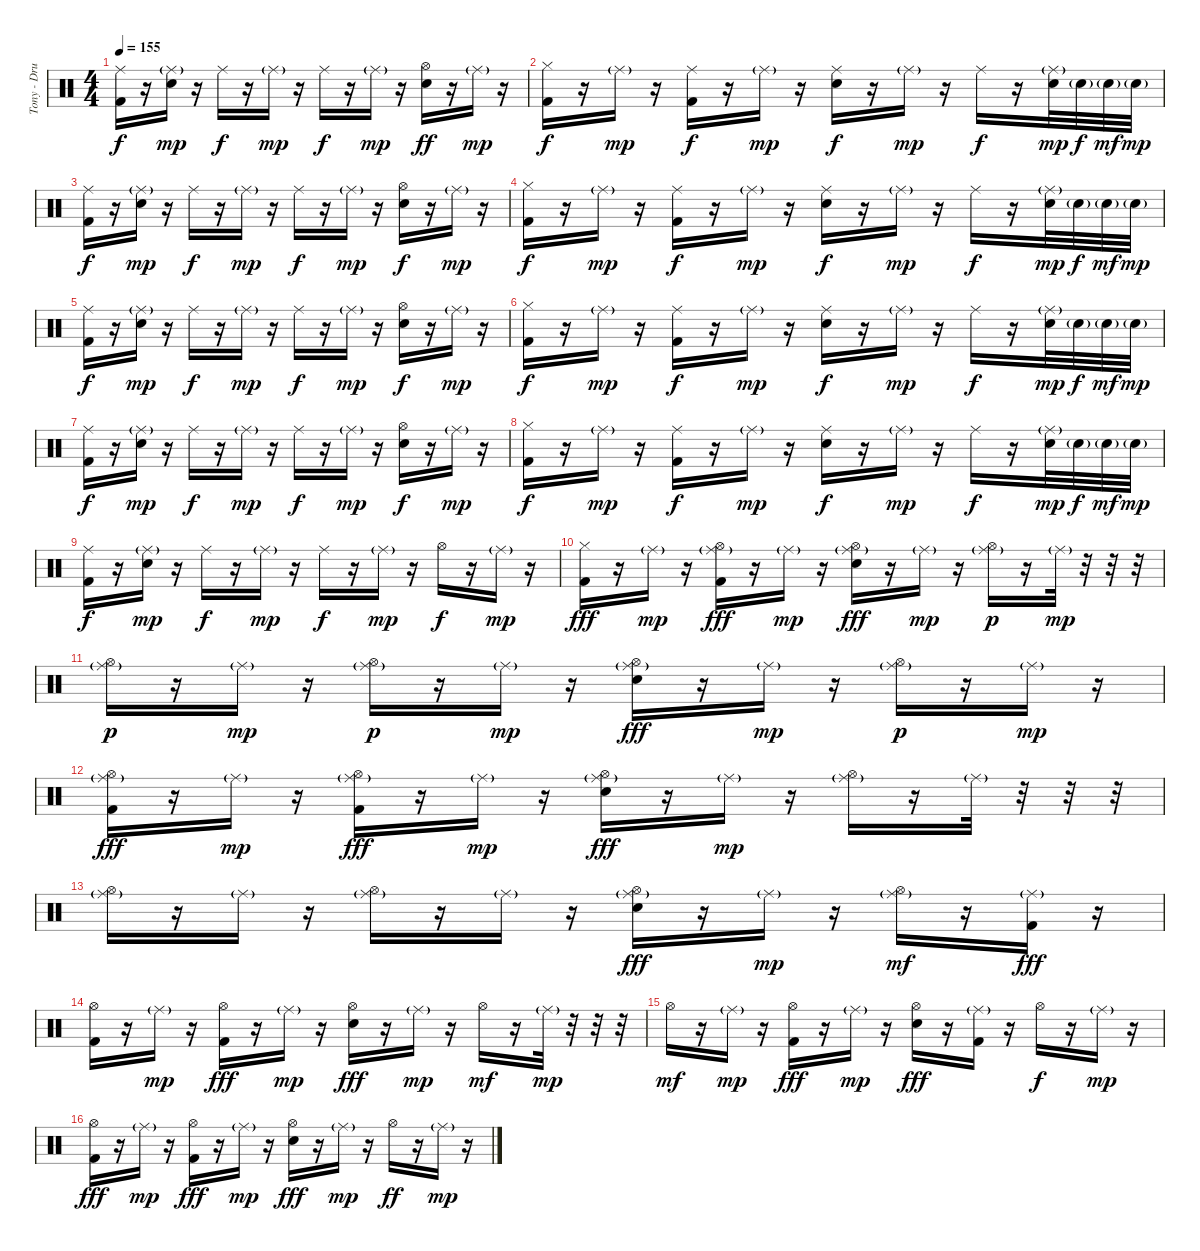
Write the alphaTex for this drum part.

\track ("Tony - Drums" "Tony - Dru") {instrument percussion}
\staff {score}
\articulation defaults
\ts (4 4)
\tempo 155
\clef neutral
\ks c
("Ride (middle)" "Kick (hit) 2").16{dy f} r.16 ("Ride (middle)"{g} "Electric Snare (hit)").16{dy mp} r.16 "Ride (middle)".16{dy f} r.16 "Ride (middle)"{g}.16{dy mp} r.16 "Ride (middle)".16{dy f} r.16 "Ride (middle)"{g}.16{dy mp} r.16 ("Hi-Hat (open)" "Electric Snare (hit)").16{dy ff} r.16 "Ride (middle)"{g}.16{dy mp} r.16 |
("Hi-Hat (closed)" "Kick (hit) 2").16{dy f} r.16 "Ride (middle)"{g}.16{dy mp} r.16 ("Ride (middle)" "Kick (hit) 2").16{dy f} r.16 "Ride (middle)"{g}.16{dy mp} r.16 ("Ride (middle)" "Electric Snare (hit)").16{dy f} r.16 "Ride (middle)"{g}.16{dy mp} r.16 "Ride (middle)".16{dy f} r.16 ("Ride (middle)"{g} "Electric Snare (hit)").32{dy mp} "Electric Snare (hit)"{g}.32{dy f} "Electric Snare (hit)"{g}.32{dy mf} "Electric Snare (hit)"{g}.32{dy mp} |
("Ride (middle)" "Kick (hit) 2").16{dy f} r.16 ("Ride (middle)"{g} "Electric Snare (hit)").16{dy mp} r.16 "Ride (middle)".16{dy f} r.16 "Ride (middle)"{g}.16{dy mp} r.16 "Ride (middle)".16{dy f} r.16 "Ride (middle)"{g}.16{dy mp} r.16 ("Hi-Hat (open)" "Electric Snare (hit)").16{dy f} r.16 "Ride (middle)"{g}.16{dy mp} r.16 |
("Hi-Hat (closed)" "Kick (hit) 2").16{dy f} r.16 "Ride (middle)"{g}.16{dy mp} r.16 ("Ride (middle)" "Kick (hit) 2").16{dy f} r.16 "Ride (middle)"{g}.16{dy mp} r.16 ("Ride (middle)" "Electric Snare (hit)").16{dy f} r.16 "Ride (middle)"{g}.16{dy mp} r.16 "Ride (middle)".16{dy f} r.16 ("Ride (middle)"{g} "Electric Snare (hit)").32{dy mp} "Electric Snare (hit)"{g}.32{dy f} "Electric Snare (hit)"{g}.32{dy mf} "Electric Snare (hit)"{g}.32{dy mp} |
("Ride (middle)" "Kick (hit) 2").16{dy f} r.16 ("Ride (middle)"{g} "Electric Snare (hit)").16{dy mp} r.16 "Ride (middle)".16{dy f} r.16 "Ride (middle)"{g}.16{dy mp} r.16 "Ride (middle)".16{dy f} r.16 "Ride (middle)"{g}.16{dy mp} r.16 ("Hi-Hat (open)" "Electric Snare (hit)").16{dy f} r.16 "Ride (middle)"{g}.16{dy mp} r.16 |
("Hi-Hat (closed)" "Kick (hit) 2").16{dy f} r.16 "Ride (middle)"{g}.16{dy mp} r.16 ("Ride (middle)" "Kick (hit) 2").16{dy f} r.16 "Ride (middle)"{g}.16{dy mp} r.16 ("Ride (middle)" "Electric Snare (hit)").16{dy f} r.16 "Ride (middle)"{g}.16{dy mp} r.16 "Ride (middle)".16{dy f} r.16 ("Ride (middle)"{g} "Electric Snare (hit)").32{dy mp} "Electric Snare (hit)"{g}.32{dy f} "Electric Snare (hit)"{g}.32{dy mf} "Electric Snare (hit)"{g}.32{dy mp} |
("Ride (middle)" "Kick (hit) 2").16{dy f} r.16 ("Ride (middle)"{g} "Electric Snare (hit)").16{dy mp} r.16 "Ride (middle)".16{dy f} r.16 "Ride (middle)"{g}.16{dy mp} r.16 "Ride (middle)".16{dy f} r.16 "Ride (middle)"{g}.16{dy mp} r.16 ("Hi-Hat (open)" "Electric Snare (hit)").16{dy f} r.16 "Ride (middle)"{g}.16{dy mp} r.16 |
("Hi-Hat (closed)" "Kick (hit) 2").16{dy f} r.16 "Ride (middle)"{g}.16{dy mp} r.16 ("Ride (middle)" "Kick (hit) 2").16{dy f} r.16 "Ride (middle)"{g}.16{dy mp} r.16 ("Ride (middle)" "Electric Snare (hit)").16{dy f} r.16 "Ride (middle)"{g}.16{dy mp} r.16 "Ride (middle)".16{dy f} r.16 ("Ride (middle)"{g} "Electric Snare (hit)").32{dy mp} "Electric Snare (hit)"{g}.32{dy f} "Electric Snare (hit)"{g}.32{dy mf} "Electric Snare (hit)"{g}.32{dy mp} |
("Ride (middle)" "Kick (hit) 2").16{dy f} r.16 ("Ride (middle)"{g} "Electric Snare (hit)").16{dy mp} r.16 "Ride (middle)".16{dy f} r.16 "Ride (middle)"{g}.16{dy mp} r.16 "Ride (middle)".16{dy f} r.16 "Ride (middle)"{g}.16{dy mp} r.16 "Hi-Hat (open)".16{dy f} r.16 "Ride (middle)"{g}.16{dy mp} r.16 |
("Hi-Hat (closed)" "Kick (hit) 2").16{dy fff} r.16 "Ride (middle)"{g}.16{dy mp} r.16 ("Hi-Hat (open)" "Ride (middle)"{g} "Kick (hit) 2").16{dy fff} r.16 "Ride (middle)"{g}.16{dy mp} r.16 ("Hi-Hat (open)" "Ride (middle)"{g} "Electric Snare (hit)").16{dy fff} r.16 "Ride (middle)"{g}.16{dy mp} r.16 ("Hi-Hat (open)" "Ride (middle)"{g}).16{dy p} r.16 "Ride (middle)"{g}.32{dy mp} r.32 r.32 r.32 |
("Hi-Hat (open)" "Ride (middle)"{g}).16{dy p} r.16 "Ride (middle)"{g}.16{dy mp} r.16 ("Hi-Hat (open)" "Ride (middle)"{g}).16{dy p} r.16 "Ride (middle)"{g}.16{dy mp} r.16 ("Hi-Hat (open)" "Ride (middle)"{g} "Electric Snare (hit)").16{dy fff} r.16 "Ride (middle)"{g}.16{dy mp} r.16 ("Hi-Hat (open)" "Ride (middle)"{g}).16{dy p} r.16 "Ride (middle)"{g}.16{dy mp} r.16 |
("Hi-Hat (open)" "Ride (middle)"{g} "Kick (hit) 2").16{dy fff} r.16 "Ride (middle)"{g}.16{dy mp} r.16 ("Hi-Hat (open)" "Ride (middle)"{g} "Kick (hit) 2").16{dy fff} r.16 "Ride (middle)"{g}.16{dy mp} r.16 ("Hi-Hat (open)" "Ride (middle)"{g} "Electric Snare (hit)").16{dy fff} r.16 "Ride (middle)"{g}.16{dy mp} r.16 ("Hi-Hat (open)" "Ride (middle)"{g}).16 r.16 "Ride (middle)"{g}.32 r.32 r.32 r.32 |
("Hi-Hat (open)" "Ride (middle)"{g}).16 r.16 "Ride (middle)"{g}.16 r.16 ("Hi-Hat (open)" "Ride (middle)"{g}).16 r.16 "Ride (middle)"{g}.16 r.16 ("Hi-Hat (open)" "Ride (middle)"{g} "Electric Snare (hit)").16{dy fff} r.16 "Ride (middle)"{g}.16{dy mp} r.16 ("Hi-Hat (open)" "Ride (middle)"{g}).16{dy mf} r.16 ("Ride (middle)"{g} "Kick (hit) 2").16{dy fff} r.16 |
("Hi-Hat (open)" "Kick (hit) 2").16 r.16 "Ride (middle)"{g}.16{dy mp} r.16 ("Hi-Hat (open)" "Kick (hit) 2").16{dy fff} r.16 "Ride (middle)"{g}.16{dy mp} r.16 ("Hi-Hat (open)" "Electric Snare (hit)").16{dy fff} r.16 "Ride (middle)"{g}.16{dy mp} r.16 "Hi-Hat (open)".16{dy mf} r.16 "Ride (middle)"{g}.32{dy mp} r.32 r.32 r.32 |
"Hi-Hat (open)".16{dy mf} r.16 "Ride (middle)"{g}.16{dy mp} r.16 ("Hi-Hat (open)" "Kick (hit) 2").16{dy fff} r.16 "Ride (middle)"{g}.16{dy mp} r.16 ("Hi-Hat (open)" "Electric Snare (hit)").16{dy fff} r.16 ("Ride (middle)"{g} "Kick (hit) 2").16 r.16 "Hi-Hat (open)".16{dy f} r.16 "Ride (middle)"{g}.16{dy mp} r.16 |
("Hi-Hat (open)" "Kick (hit) 2").16{dy fff} r.16 "Ride (middle)"{g}.16{dy mp} r.16 ("Hi-Hat (open)" "Kick (hit) 2").16{dy fff} r.16 "Ride (middle)"{g}.16{dy mp} r.16 ("Hi-Hat (open)" "Electric Snare (hit)").16{dy fff} r.16 "Ride (middle)"{g}.16{dy mp} r.16 "Hi-Hat (open)".16{dy ff} r.16 "Ride (middle)"{g}.16{dy mp} r.16
